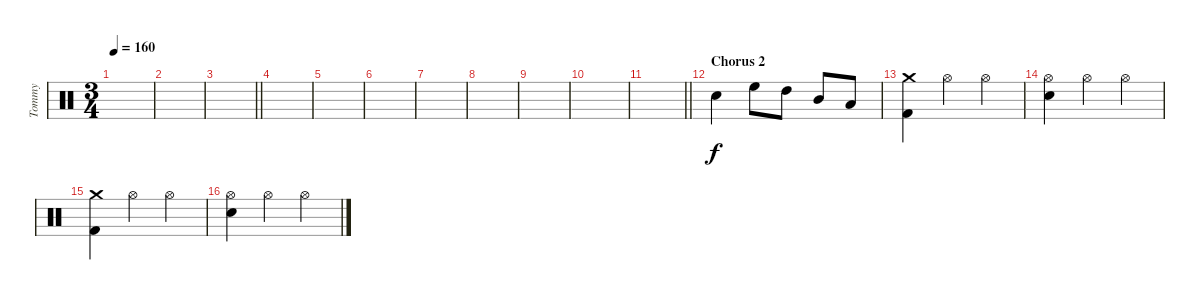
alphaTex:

\track ("Tommy" "Tommy") {instrument percussion}
\staff {score}
\articulation defaults
\ts (3 4)
\tempo 160
\clef neutral
\ks c
|
|
\barLineRight lightlight
|
|
|
|
|
|
|
|
\barLineRight lightlight
|
\section ("" "Chorus 2")
"Electric Snare (hit)".4 "High Floor Tom (hit)".8 "High Tom (hit)".8 "Mid Tom (hit)".8 "Low Tom (hit)".8 |
("Crash medium (hit)" "Kick (hit) 2").4 "Hi-Hat (open)".4 "Hi-Hat (open)".4 |
("Hi-Hat (open)" "Electric Snare (hit)").4 "Hi-Hat (open)".4 "Hi-Hat (open)".4 |
("Crash medium (hit)" "Kick (hit) 2").4 "Hi-Hat (open)".4 "Hi-Hat (open)".4 |
("Hi-Hat (open)" "Electric Snare (hit)").4 "Hi-Hat (open)".4 "Hi-Hat (open)".4
